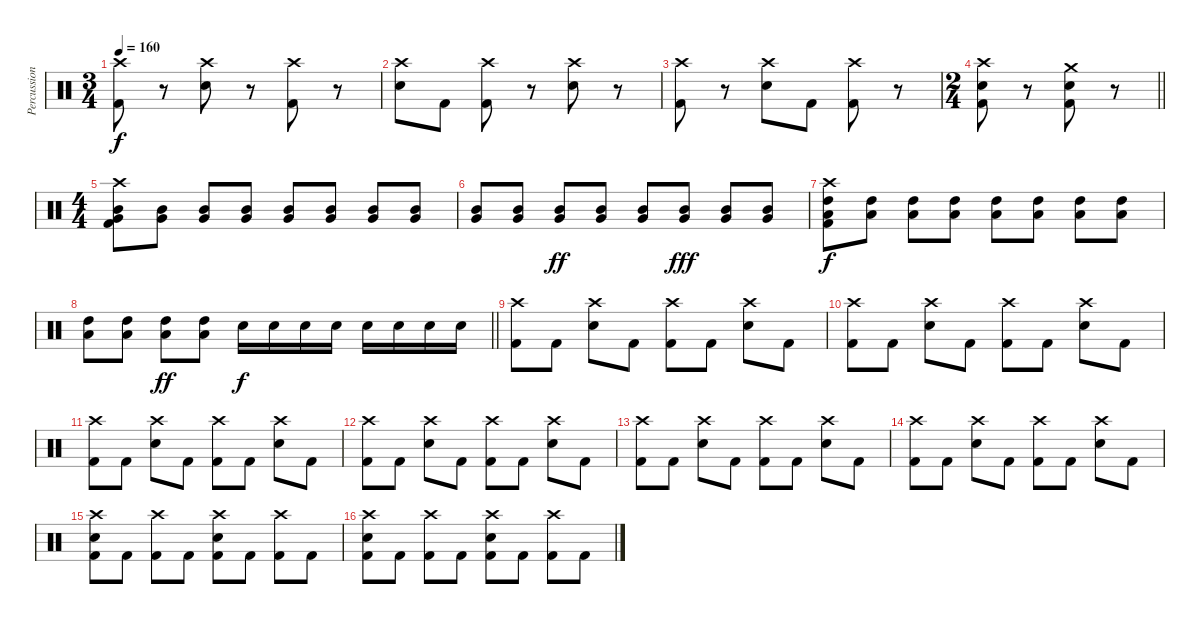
\track ("Percussion" "Percussion") {instrument percussion}
\staff {score}
\articulation defaults
\ts (3 4)
\tempo 160
\clef neutral
\ks c
("Crash high (hit)" "Kick (hit) 2").8{dy f} r.8 ("Crash high (hit)" "Snare (hit) 2").8 r.8 ("Crash high (hit)" "Kick (hit) 2").8 r.8 |
("Crash high (hit)" "Snare (hit) 2").8 "Kick (hit) 2".8 ("Crash high (hit)" "Kick (hit) 2").8 r.8 ("Crash high (hit)" "Snare (hit) 2").8 r.8 |
("Crash high (hit)" "Kick (hit) 2").8 r.8 ("Crash high (hit)" "Snare (hit) 2").8 "Kick (hit) 2".8 ("Crash high (hit)" "Kick (hit) 2").8 r.8 |
\ts (2 4)
\barLineRight lightlight
("Crash high (hit)" "Snare (hit) 2" "Kick (hit) 2").8 r.8 ("Crash medium (hit)" "Snare (hit) 2" "Kick (hit) 2").8 r.8 |
\ts (4 4)
\section ("" "")
("Crash high (hit)" "Mid Tom (hit)" "Very Low Tom (hit)" "Kick (hit) 2").8 ("Mid Tom (hit)" "Very Low Tom (hit)").8 ("Mid Tom (hit)" "Very Low Tom (hit)").8 ("Mid Tom (hit)" "Very Low Tom (hit)").8 ("Mid Tom (hit)" "Very Low Tom (hit)").8 ("Mid Tom (hit)" "Very Low Tom (hit)").8 ("Mid Tom (hit)" "Very Low Tom (hit)").8 ("Mid Tom (hit)" "Very Low Tom (hit)").8 |
("Mid Tom (hit)" "Very Low Tom (hit)").8 ("Mid Tom (hit)" "Very Low Tom (hit)").8 ("Mid Tom (hit)" "Very Low Tom (hit)").8{dy ff} ("Mid Tom (hit)" "Very Low Tom (hit)").8 ("Mid Tom (hit)" "Very Low Tom (hit)").8 ("Mid Tom (hit)" "Very Low Tom (hit)").8{dy fff} ("Mid Tom (hit)" "Very Low Tom (hit)").8 ("Mid Tom (hit)" "Very Low Tom (hit)").8 |
("Crash high (hit)" "High Tom (hit)" "Low Tom (hit)" "Kick (hit) 2").8{dy f} ("High Tom (hit)" "Low Tom (hit)").8 ("High Tom (hit)" "Low Tom (hit)").8 ("High Tom (hit)" "Low Tom (hit)").8 ("High Tom (hit)" "Low Tom (hit)").8 ("High Tom (hit)" "Low Tom (hit)").8 ("High Tom (hit)" "Low Tom (hit)").8 ("High Tom (hit)" "Low Tom (hit)").8 |
\barLineRight lightlight
("High Tom (hit)" "Low Tom (hit)").8 ("High Tom (hit)" "Low Tom (hit)").8 ("High Tom (hit)" "Low Tom (hit)").8{dy ff} ("High Tom (hit)" "Low Tom (hit)").8 "Snare (hit) 2".16{dy f} "Snare (hit) 2".16 "Snare (hit) 2".16 "Snare (hit) 2".16 "Snare (hit) 2".16 "Snare (hit) 2".16 "Snare (hit) 2".16 "Snare (hit) 2".16 |
\section ("" "")
("Crash high (hit)" "Kick (hit) 2").8 "Kick (hit) 2".8 ("Crash high (hit)" "Snare (hit) 2").8 "Kick (hit) 2".8 ("Crash high (hit)" "Kick (hit) 2").8 "Kick (hit) 2".8 ("Crash high (hit)" "Snare (hit) 2").8 "Kick (hit) 2".8 |
("Crash high (hit)" "Kick (hit) 2").8 "Kick (hit) 2".8 ("Crash high (hit)" "Snare (hit) 2").8 "Kick (hit) 2".8 ("Crash high (hit)" "Kick (hit) 2").8 "Kick (hit) 2".8 ("Crash high (hit)" "Snare (hit) 2").8 "Kick (hit) 2".8 |
("Crash high (hit)" "Kick (hit) 2").8 "Kick (hit) 2".8 ("Crash high (hit)" "Snare (hit) 2").8 "Kick (hit) 2".8 ("Crash high (hit)" "Kick (hit) 2").8 "Kick (hit) 2".8 ("Crash high (hit)" "Snare (hit) 2").8 "Kick (hit) 2".8 |
("Crash high (hit)" "Kick (hit) 2").8 "Kick (hit) 2".8 ("Crash high (hit)" "Snare (hit) 2").8 "Kick (hit) 2".8 ("Crash high (hit)" "Kick (hit) 2").8 "Kick (hit) 2".8 ("Crash high (hit)" "Snare (hit) 2").8 "Kick (hit) 2".8 |
("Crash high (hit)" "Kick (hit) 2").8 "Kick (hit) 2".8 ("Crash high (hit)" "Snare (hit) 2").8 "Kick (hit) 2".8 ("Crash high (hit)" "Kick (hit) 2").8 "Kick (hit) 2".8 ("Crash high (hit)" "Snare (hit) 2").8 "Kick (hit) 2".8 |
("Crash high (hit)" "Kick (hit) 2").8 "Kick (hit) 2".8 ("Crash high (hit)" "Snare (hit) 2").8 "Kick (hit) 2".8 ("Crash high (hit)" "Kick (hit) 2").8 "Kick (hit) 2".8 ("Crash high (hit)" "Snare (hit) 2").8 "Kick (hit) 2".8 |
("Crash high (hit)" "Snare (hit) 2" "Kick (hit) 2").8 "Kick (hit) 2".8 ("Crash high (hit)" "Kick (hit) 2").8 "Kick (hit) 2".8 ("Crash high (hit)" "Snare (hit) 2" "Kick (hit) 2").8 "Kick (hit) 2".8 ("Crash high (hit)" "Kick (hit) 2").8 "Kick (hit) 2".8 |
("Crash high (hit)" "Snare (hit) 2" "Kick (hit) 2").8 "Kick (hit) 2".8 ("Crash high (hit)" "Kick (hit) 2").8 "Kick (hit) 2".8 ("Crash high (hit)" "Snare (hit) 2" "Kick (hit) 2").8 "Kick (hit) 2".8 ("Crash high (hit)" "Kick (hit) 2").8 "Kick (hit) 2".8
